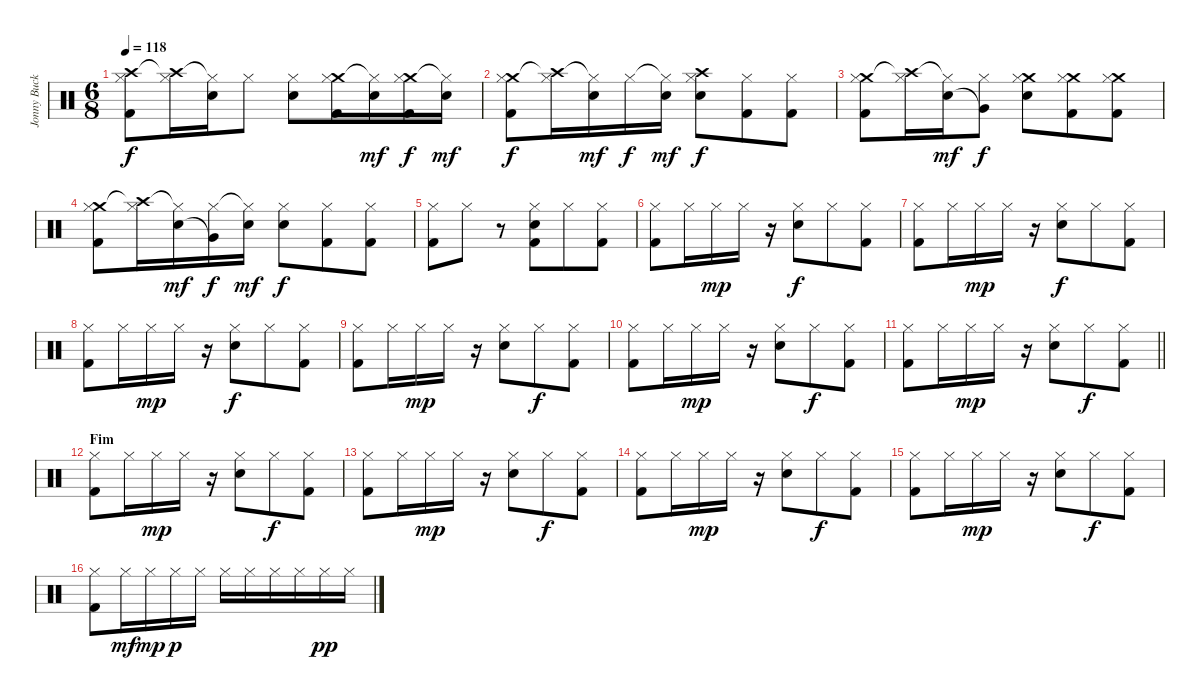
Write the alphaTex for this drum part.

\track ("Jonny Buckland (batera)" "Jonny Buck") {instrument percussion}
\staff {score}
\articulation defaults
\ts (6 8)
\tempo 118
\clef neutral
\ks c
("Crash high (hit)" "Hi-Hat (closed)" "Kick (hit) 2").8{dy f} ("Crash high (hit)"{t} "Hi-Hat (closed)").16 ("Hi-Hat (closed)"{t} "Electric Snare (hit)").16 "Hi-Hat (closed)".8 ("Hi-Hat (closed)" "Electric Snare (hit)").8 ("Crash medium (hit)" "Hi-Hat (closed)" "Kick (hit) 2").16 ("Hi-Hat (closed)"{t} "Snare (hit) 2").16{dy mf} ("Crash medium (hit)" "Hi-Hat (closed)" "Kick (hit) 2").16{dy f} ("Hi-Hat (closed)"{t} "Snare (hit) 2").16{dy mf} |
("Crash medium (hit)" "Hi-Hat (closed)" "Kick (hit) 2").8{dy f} ("Crash high (hit)"{t} "Hi-Hat (closed)").16 ("Hi-Hat (closed)"{t} "Snare (hit) 2").16{dy mf} "Hi-Hat (closed)".16{dy f} ("Hi-Hat (closed)"{t} "Snare (hit) 2").16{dy mf} ("Crash high (hit)" "Hi-Hat (closed)" "Electric Snare (hit)").8{dy f} ("Hi-Hat (closed)" "Kick (hit) 2").8 ("Hi-Hat (closed)" "Kick (hit) 2").8 |
("Crash medium (hit)" "Hi-Hat (closed)" "Kick (hit) 2").8 ("Crash high (hit)"{t} "Hi-Hat (closed)").16 ("Hi-Hat (closed)"{t} "Snare (hit) 2").16{dy mf} ("Hi-Hat (closed)" "Very Low Tom (hit)"{t}).8{dy f} ("Crash medium (hit)" "Hi-Hat (closed)" "Electric Snare (hit)").8 ("Crash medium (hit)" "Hi-Hat (closed)" "Kick (hit) 2").8 ("Crash medium (hit)" "Hi-Hat (closed)" "Kick (hit) 2").8 |
("Crash medium (hit)" "Hi-Hat (closed)" "Kick (hit) 2").8 ("Crash high (hit)"{t} "Hi-Hat (closed)").16 ("Hi-Hat (closed)"{t} "Snare (hit) 2").16{dy mf} ("Hi-Hat (closed)" "Very Low Tom (hit)"{t}).16{dy f} ("Hi-Hat (closed)"{t} "Snare (hit) 2").16{dy mf} ("Hi-Hat (closed)" "Electric Snare (hit)").8{dy f} ("Hi-Hat (closed)" "Kick (hit) 2").8 ("Hi-Hat (closed)" "Kick (hit) 2").8 |
("Hi-Hat (closed)" "Kick (hit) 2").8 "Hi-Hat (closed)".8 r.8 ("Hi-Hat (closed)" "Electric Snare (hit)" "Kick (hit) 2").8 "Hi-Hat (closed)".8 ("Hi-Hat (closed)" "Kick (hit) 2").8 |
("Hi-Hat (closed)" "Kick (hit) 2").8 "Hi-Hat (closed)".16 "Hi-Hat (closed)".16{dy mp} "Hi-Hat (closed)".16 r.16 ("Hi-Hat (closed)" "Electric Snare (hit)").8{dy f} "Hi-Hat (closed)".8 ("Hi-Hat (closed)" "Kick (hit) 2").8 |
("Hi-Hat (closed)" "Kick (hit) 2").8 "Hi-Hat (closed)".16 "Hi-Hat (closed)".16{dy mp} "Hi-Hat (closed)".16 r.16 ("Hi-Hat (closed)" "Electric Snare (hit)").8{dy f} "Hi-Hat (closed)".8 ("Hi-Hat (closed)" "Kick (hit) 2").8 |
("Hi-Hat (closed)" "Kick (hit) 2").8 "Hi-Hat (closed)".16 "Hi-Hat (closed)".16{dy mp} "Hi-Hat (closed)".16 r.16 ("Hi-Hat (closed)" "Electric Snare (hit)").8{dy f} "Hi-Hat (closed)".8 ("Hi-Hat (closed)" "Kick (hit) 2").8 |
("Hi-Hat (closed)" "Kick (hit) 2").8 "Hi-Hat (closed)".16 "Hi-Hat (closed)".16{dy mp} "Hi-Hat (closed)".16 r.16 ("Hi-Hat (closed)" "Snare (hit) 2").8 "Hi-Hat (closed)".8{dy f} ("Hi-Hat (closed)" "Kick (hit) 2").8 |
("Hi-Hat (closed)" "Kick (hit) 2").8 "Hi-Hat (closed)".16 "Hi-Hat (closed)".16{dy mp} "Hi-Hat (closed)".16 r.16 ("Hi-Hat (closed)" "Snare (hit) 2").8 "Hi-Hat (closed)".8{dy f} ("Hi-Hat (closed)" "Kick (hit) 2").8 |
\barLineRight lightlight
("Hi-Hat (closed)" "Kick (hit) 2").8 "Hi-Hat (closed)".16 "Hi-Hat (closed)".16{dy mp} "Hi-Hat (closed)".16 r.16 ("Hi-Hat (closed)" "Snare (hit) 2").8 "Hi-Hat (closed)".8{dy f} ("Hi-Hat (closed)" "Kick (hit) 2").8 |
\section ("" "Fim")
("Hi-Hat (closed)" "Kick (hit) 2").8 "Hi-Hat (closed)".16 "Hi-Hat (closed)".16{dy mp} "Hi-Hat (closed)".16 r.16 ("Hi-Hat (closed)" "Snare (hit) 2").8 "Hi-Hat (closed)".8{dy f} ("Hi-Hat (closed)" "Kick (hit) 2").8 |
("Hi-Hat (closed)" "Kick (hit) 2").8 "Hi-Hat (closed)".16 "Hi-Hat (closed)".16{dy mp} "Hi-Hat (closed)".16 r.16 ("Hi-Hat (closed)" "Snare (hit) 2").8 "Hi-Hat (closed)".8{dy f} ("Hi-Hat (closed)" "Kick (hit) 2").8 |
("Hi-Hat (closed)" "Kick (hit) 2").8 "Hi-Hat (closed)".16 "Hi-Hat (closed)".16{dy mp} "Hi-Hat (closed)".16 r.16 ("Hi-Hat (closed)" "Snare (hit) 2").8 "Hi-Hat (closed)".8{dy f} ("Hi-Hat (closed)" "Kick (hit) 2").8 |
("Hi-Hat (closed)" "Kick (hit) 2").8 "Hi-Hat (closed)".16 "Hi-Hat (closed)".16{dy mp} "Hi-Hat (closed)".16 r.16 ("Hi-Hat (closed)" "Snare (hit) 2").8 "Hi-Hat (closed)".8{dy f} ("Hi-Hat (closed)" "Kick (hit) 2").8 |
("Hi-Hat (closed)" "Kick (hit) 2").8 "Hi-Hat (closed)".16{dy mf} "Hi-Hat (closed)".16{dy mp} "Hi-Hat (closed)".16{dy p} "Hi-Hat (closed)".16 "Hi-Hat (closed)".16 "Hi-Hat (closed)".16 "Hi-Hat (closed)".16 "Hi-Hat (closed)".16 "Hi-Hat (closed)".16{dy pp} "Hi-Hat (closed)".16
